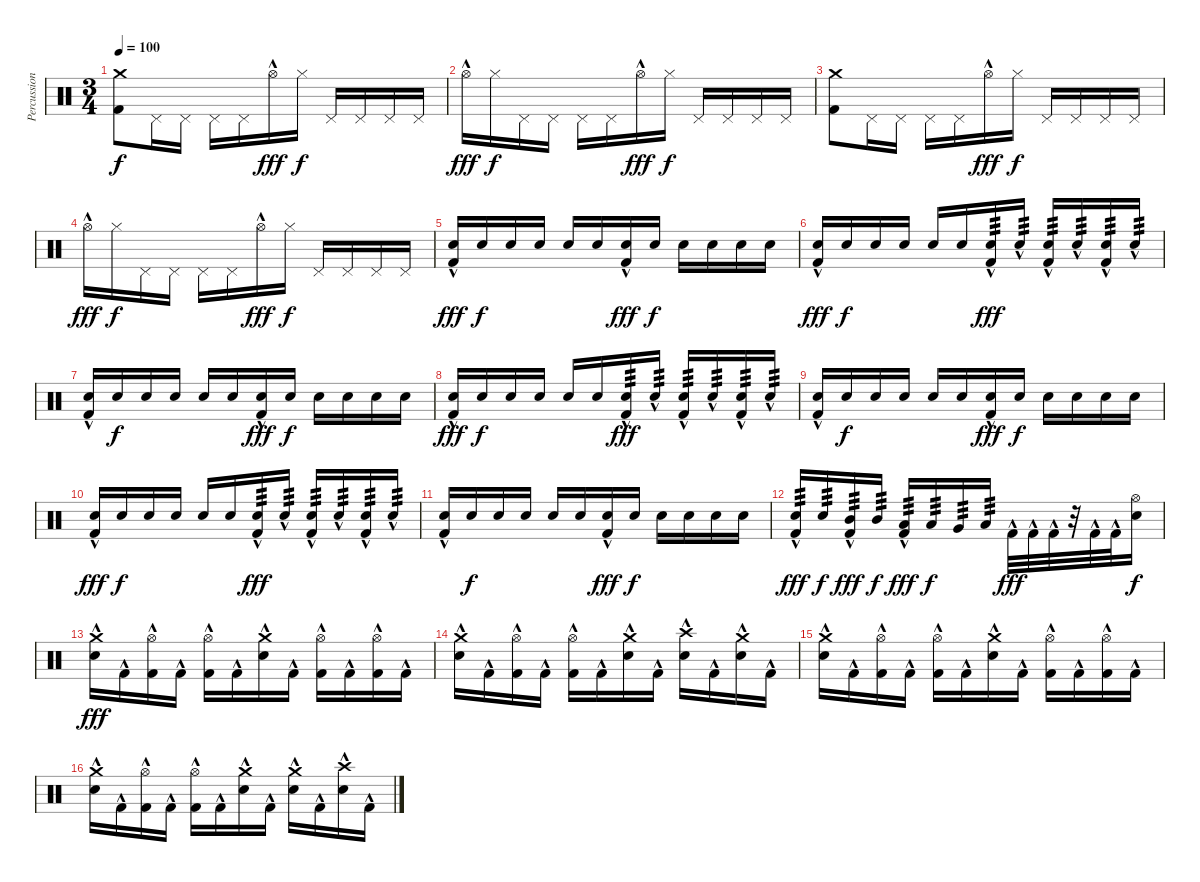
\track ("Percussion" "Percussion") {instrument percussion}
\staff {score}
\articulation defaults
\ts (3 4)
\tempo 100
\clef neutral
\ks c
("Kick (hit) 2" "Crash medium (hit)").8{dy f} "Pedal Hi-Hat (hit)".16 "Pedal Hi-Hat (hit)".16 "Pedal Hi-Hat (hit)".16 "Pedal Hi-Hat (hit)".16 "Hi-Hat (open)"{hac}.16{dy fff} "Hi-Hat (closed)".16{dy f} "Pedal Hi-Hat (hit)".16 "Pedal Hi-Hat (hit)".16 "Pedal Hi-Hat (hit)".16 "Pedal Hi-Hat (hit)".16 |
"Hi-Hat (open)"{hac}.16{dy fff} "Hi-Hat (closed)".16{dy f} "Pedal Hi-Hat (hit)".16 "Pedal Hi-Hat (hit)".16 "Pedal Hi-Hat (hit)".16 "Pedal Hi-Hat (hit)".16 "Hi-Hat (open)"{hac}.16{dy fff} "Hi-Hat (closed)".16{dy f} "Pedal Hi-Hat (hit)".16 "Pedal Hi-Hat (hit)".16 "Pedal Hi-Hat (hit)".16 "Pedal Hi-Hat (hit)".16 |
("Kick (hit) 2" "Crash medium (hit)").8 "Pedal Hi-Hat (hit)".16 "Pedal Hi-Hat (hit)".16 "Pedal Hi-Hat (hit)".16 "Pedal Hi-Hat (hit)".16 "Hi-Hat (open)"{hac}.16{dy fff} "Hi-Hat (closed)".16{dy f} "Pedal Hi-Hat (hit)".16 "Pedal Hi-Hat (hit)".16 "Pedal Hi-Hat (hit)".16 "Pedal Hi-Hat (hit)".16 |
"Hi-Hat (open)"{hac}.16{dy fff} "Hi-Hat (closed)".16{dy f} "Pedal Hi-Hat (hit)".16 "Pedal Hi-Hat (hit)".16 "Pedal Hi-Hat (hit)".16 "Pedal Hi-Hat (hit)".16 "Hi-Hat (open)"{hac}.16{dy fff} "Hi-Hat (closed)".16{dy f} "Pedal Hi-Hat (hit)".16 "Pedal Hi-Hat (hit)".16 "Pedal Hi-Hat (hit)".16 "Pedal Hi-Hat (hit)".16 |
("Kick (hit) 2"{hac} "Electric Snare (hit)"{hac}).16{dy fff} "Electric Snare (hit)".16{dy f} "Electric Snare (hit)".16 "Electric Snare (hit)".16 "Electric Snare (hit)".16 "Electric Snare (hit)".16 ("Kick (hit) 2"{hac} "Electric Snare (hit)"{hac}).16{dy fff} "Electric Snare (hit)".16{dy f} "Electric Snare (hit)".16 "Electric Snare (hit)".16 "Electric Snare (hit)".16 "Electric Snare (hit)".16 |
("Kick (hit) 2"{hac} "Electric Snare (hit)"{hac}).16{dy fff} "Electric Snare (hit)".16{dy f} "Electric Snare (hit)".16 "Electric Snare (hit)".16 "Electric Snare (hit)".16 "Electric Snare (hit)".16 ("Kick (hit) 2"{hac} "Electric Snare (hit)"{hac}).16{tp 3 dy fff} "Electric Snare (hit)"{hac}.16{tp 3} ("Kick (hit) 2"{hac} "Electric Snare (hit)"{hac}).16{tp 3} "Electric Snare (hit)"{hac}.16{tp 3} ("Kick (hit) 2"{hac} "Electric Snare (hit)"{hac}).16{tp 3} "Electric Snare (hit)"{hac}.16{tp 3} |
("Kick (hit) 2"{hac} "Electric Snare (hit)"{hac}).16 "Electric Snare (hit)".16{dy f} "Electric Snare (hit)".16 "Electric Snare (hit)".16 "Electric Snare (hit)".16 "Electric Snare (hit)".16 ("Kick (hit) 2"{hac} "Electric Snare (hit)"{hac}).16{dy fff} "Electric Snare (hit)".16{dy f} "Electric Snare (hit)".16 "Electric Snare (hit)".16 "Electric Snare (hit)".16 "Electric Snare (hit)".16 |
("Kick (hit) 2"{hac} "Electric Snare (hit)"{hac}).16{dy fff} "Electric Snare (hit)".16{dy f} "Electric Snare (hit)".16 "Electric Snare (hit)".16 "Electric Snare (hit)".16 "Electric Snare (hit)".16 ("Kick (hit) 2"{hac} "Electric Snare (hit)"{hac}).16{tp 3 dy fff} "Electric Snare (hit)"{hac}.16{tp 3} ("Kick (hit) 2"{hac} "Electric Snare (hit)"{hac}).16{tp 3} "Electric Snare (hit)"{hac}.16{tp 3} ("Kick (hit) 2"{hac} "Electric Snare (hit)"{hac}).16{tp 3} "Electric Snare (hit)"{hac}.16{tp 3} |
("Kick (hit) 2"{hac} "Electric Snare (hit)"{hac}).16 "Electric Snare (hit)".16{dy f} "Electric Snare (hit)".16 "Electric Snare (hit)".16 "Electric Snare (hit)".16 "Electric Snare (hit)".16 ("Kick (hit) 2"{hac} "Electric Snare (hit)"{hac}).16{dy fff} "Electric Snare (hit)".16{dy f} "Electric Snare (hit)".16 "Electric Snare (hit)".16 "Electric Snare (hit)".16 "Electric Snare (hit)".16 |
("Kick (hit) 2"{hac} "Electric Snare (hit)"{hac}).16{dy fff} "Electric Snare (hit)".16{dy f} "Electric Snare (hit)".16 "Electric Snare (hit)".16 "Electric Snare (hit)".16 "Electric Snare (hit)".16 ("Kick (hit) 2"{hac} "Electric Snare (hit)"{hac}).16{tp 3 dy fff} "Electric Snare (hit)"{hac}.16{tp 3} ("Kick (hit) 2"{hac} "Electric Snare (hit)"{hac}).16{tp 3} "Electric Snare (hit)"{hac}.16{tp 3} ("Kick (hit) 2"{hac} "Electric Snare (hit)"{hac}).16{tp 3} "Electric Snare (hit)"{hac}.16{tp 3} |
("Kick (hit) 2"{hac} "Electric Snare (hit)"{hac}).16 "Electric Snare (hit)".16{dy f} "Electric Snare (hit)".16 "Electric Snare (hit)".16 "Electric Snare (hit)".16 "Electric Snare (hit)".16 ("Kick (hit) 2"{hac} "Electric Snare (hit)"{hac}).16{dy fff} "Electric Snare (hit)".16{dy f} "Electric Snare (hit)".16 "Electric Snare (hit)".16 "Electric Snare (hit)".16 "Electric Snare (hit)".16 |
("Kick (hit) 2"{hac} "Electric Snare (hit)").16{tp 3 dy fff} "Electric Snare (hit)".16{tp 3 dy f} ("Kick (hit) 2"{hac} "Mid Tom (hit)").16{tp 3 dy fff} "Mid Tom (hit)".16{tp 3 dy f} ("Kick (hit) 2"{hac} "Low Tom (hit)").16{tp 3 dy fff} "Low Tom (hit)".16{tp 3 dy f} "Very Low Tom (hit)".16{tp 3} "Low Floor Tom (hit)".16{tp 3} "Kick (hit) 2"{hac}.32{dy fff} "Kick (hit) 2"{hac}.32 "Kick (hit) 2"{hac}.32 r.32 "Kick (hit) 2"{hac}.32 "Kick (hit) 2"{hac}.32 ("Electric Snare (hit)" "Hi-Hat (open)").16{dy f} |
("Electric Snare (hit)"{hac} "Crash medium (hit)").16{dy fff} "Kick (hit) 2"{hac}.16 ("Kick (hit) 2"{hac} "Hi-Hat (open)").16 "Kick (hit) 2"{hac}.16 ("Kick (hit) 2"{hac} "Hi-Hat (open)").16 "Kick (hit) 2"{hac}.16 ("Electric Snare (hit)"{hac} "Crash medium (hit)").16 "Kick (hit) 2"{hac}.16 ("Kick (hit) 2"{hac} "Hi-Hat (open)").16 "Kick (hit) 2"{hac}.16 ("Kick (hit) 2"{hac} "Hi-Hat (open)").16 "Kick (hit) 2"{hac}.16 |
("Electric Snare (hit)"{hac} "Crash medium (hit)").16 "Kick (hit) 2"{hac}.16 ("Kick (hit) 2"{hac} "Hi-Hat (open)").16 "Kick (hit) 2"{hac}.16 ("Kick (hit) 2"{hac} "Hi-Hat (open)").16 "Kick (hit) 2"{hac}.16 ("Electric Snare (hit)"{hac} "Crash medium (hit)").16 "Kick (hit) 2"{hac}.16 ("Electric Snare (hit)"{hac} "Crash high (hit)").16 "Kick (hit) 2"{hac}.16 ("Electric Snare (hit)"{hac} "Crash medium (hit)").16 "Kick (hit) 2"{hac}.16 |
("Electric Snare (hit)"{hac} "Crash medium (hit)").16 "Kick (hit) 2"{hac}.16 ("Kick (hit) 2"{hac} "Hi-Hat (open)").16 "Kick (hit) 2"{hac}.16 ("Kick (hit) 2"{hac} "Hi-Hat (open)").16 "Kick (hit) 2"{hac}.16 ("Electric Snare (hit)"{hac} "Crash medium (hit)").16 "Kick (hit) 2"{hac}.16 ("Kick (hit) 2"{hac} "Hi-Hat (open)").16 "Kick (hit) 2"{hac}.16 ("Kick (hit) 2"{hac} "Hi-Hat (open)").16 "Kick (hit) 2"{hac}.16 |
("Electric Snare (hit)"{hac} "Crash medium (hit)").16 "Kick (hit) 2"{hac}.16 ("Kick (hit) 2"{hac} "Hi-Hat (open)").16 "Kick (hit) 2"{hac}.16 ("Kick (hit) 2"{hac} "Hi-Hat (open)").16 "Kick (hit) 2"{hac}.16 ("Electric Snare (hit)"{hac} "Crash medium (hit)").16 "Kick (hit) 2"{hac}.16 ("Electric Snare (hit)"{hac} "Crash medium (hit)").16 "Kick (hit) 2"{hac}.16 ("Electric Snare (hit)"{hac} "Crash high (hit)").16 "Kick (hit) 2"{hac}.16
